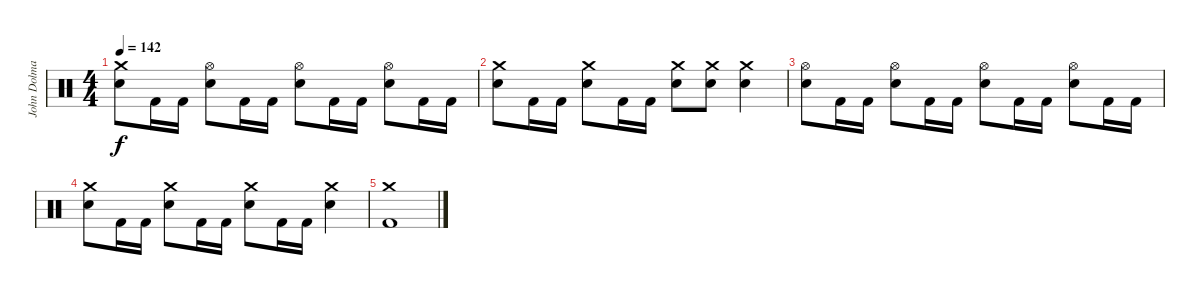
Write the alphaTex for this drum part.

\track ("John Dolmayan" "John Dolma") {instrument percussion}
\staff {score}
\articulation defaults
\ts (4 4)
\tempo 142
\clef neutral
\ks c
("Crash medium (hit)" "Electric Snare (hit)").8{dy f} "Kick (hit) 2".16 "Kick (hit) 2".16 ("Hi-Hat (open)" "Electric Snare (hit)").8 "Kick (hit) 2".16 "Kick (hit) 2".16 ("Hi-Hat (open)" "Electric Snare (hit)").8 "Kick (hit) 2".16 "Kick (hit) 2".16 ("Hi-Hat (open)" "Electric Snare (hit)").8 "Kick (hit) 2".16 "Kick (hit) 2".16 |
("Crash medium (hit)" "Electric Snare (hit)").8 "Kick (hit) 2".16 "Kick (hit) 2".16 ("Crash medium (hit)" "Electric Snare (hit)").8 "Kick (hit) 2".16 "Kick (hit) 2".16 ("Crash medium (hit)" "Electric Snare (hit)").8 ("Crash medium (hit)" "Electric Snare (hit)").8 ("Crash medium (hit)" "Electric Snare (hit)").4 |
("Hi-Hat (open)" "Electric Snare (hit)").8 "Kick (hit) 2".16 "Kick (hit) 2".16 ("Hi-Hat (open)" "Electric Snare (hit)").8 "Kick (hit) 2".16 "Kick (hit) 2".16 ("Hi-Hat (open)" "Electric Snare (hit)").8 "Kick (hit) 2".16 "Kick (hit) 2".16 ("Hi-Hat (open)" "Electric Snare (hit)").8 "Kick (hit) 2".16 "Kick (hit) 2".16 |
("Crash medium (hit)" "Electric Snare (hit)").8 "Kick (hit) 2".16 "Kick (hit) 2".16 ("Crash medium (hit)" "Electric Snare (hit)").8 "Kick (hit) 2".16 "Kick (hit) 2".16 ("Crash medium (hit)" "Electric Snare (hit)").8 "Kick (hit) 2".16 "Kick (hit) 2".16 ("Crash medium (hit)" "Electric Snare (hit)").4 |
("Crash medium (hit)" "Kick (hit) 2").1
